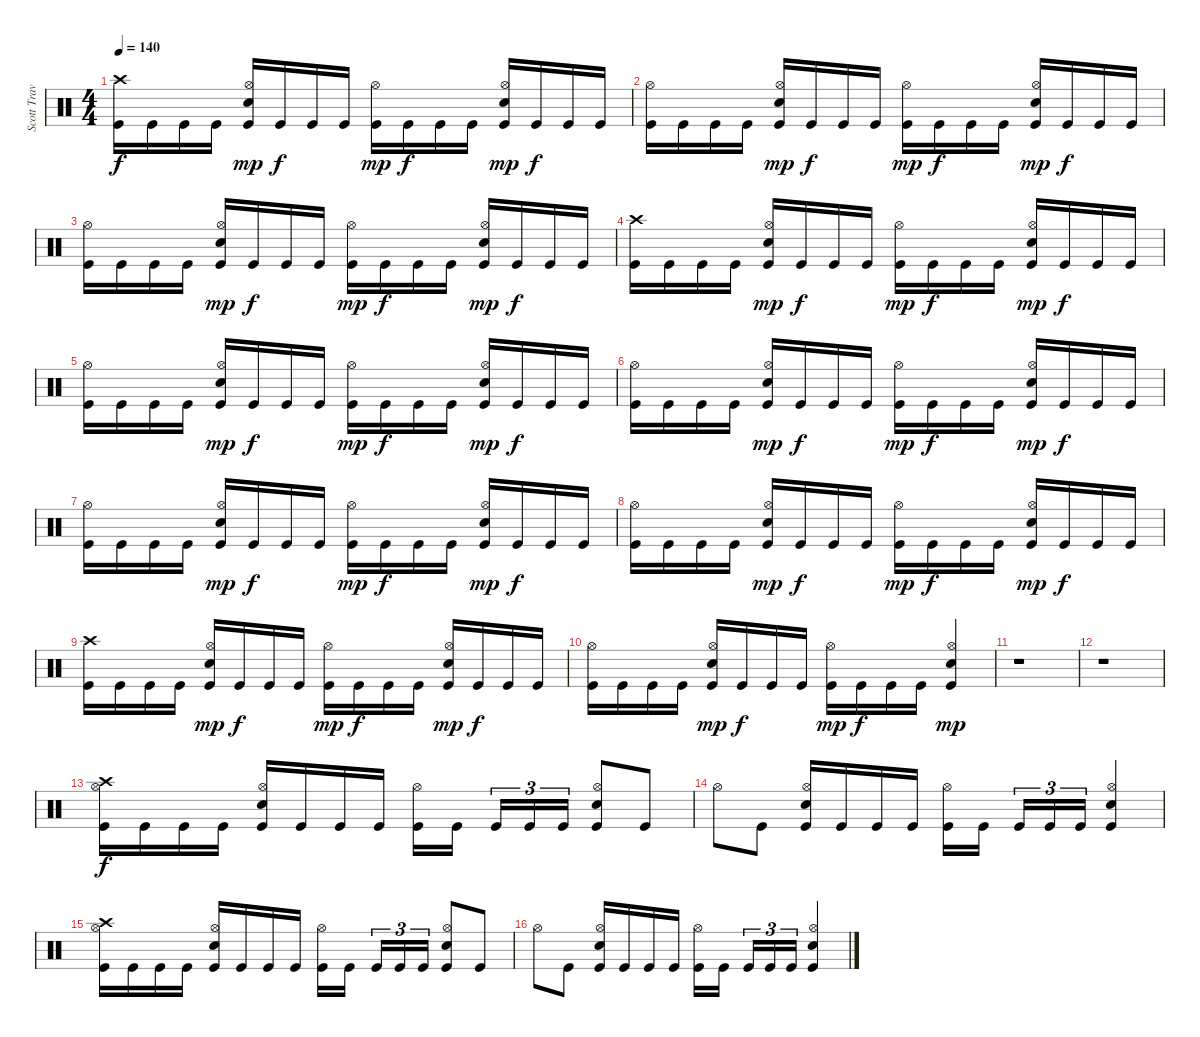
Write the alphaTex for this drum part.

\track ("Scott Travis" "Scott Trav") {instrument percussion}
\staff {score}
\articulation defaults
\ts (4 4)
\tempo 140
\clef neutral
\ks c
("Crash high (hit)" "Kick (hit)").16{dy f} "Kick (hit)".16 "Kick (hit)".16 "Kick (hit)".16 ("Hi-Hat (open)" "Snare (hit) 2" "Kick (hit)").16{dy mp} "Kick (hit)".16{dy f} "Kick (hit)".16 "Kick (hit)".16 ("Hi-Hat (open)" "Kick (hit)").16{dy mp} "Kick (hit)".16{dy f} "Kick (hit)".16 "Kick (hit)".16 ("Hi-Hat (open)" "Snare (hit) 2" "Kick (hit)").16{dy mp} "Kick (hit)".16{dy f} "Kick (hit)".16 "Kick (hit)".16 |
("Hi-Hat (open)" "Kick (hit)").16 "Kick (hit)".16 "Kick (hit)".16 "Kick (hit)".16 ("Hi-Hat (open)" "Snare (hit) 2" "Kick (hit)").16{dy mp} "Kick (hit)".16{dy f} "Kick (hit)".16 "Kick (hit)".16 ("Hi-Hat (open)" "Kick (hit)").16{dy mp} "Kick (hit)".16{dy f} "Kick (hit)".16 "Kick (hit)".16 ("Hi-Hat (open)" "Snare (hit) 2" "Kick (hit)").16{dy mp} "Kick (hit)".16{dy f} "Kick (hit)".16 "Kick (hit)".16 |
("Hi-Hat (open)" "Kick (hit)").16 "Kick (hit)".16 "Kick (hit)".16 "Kick (hit)".16 ("Hi-Hat (open)" "Snare (hit) 2" "Kick (hit)").16{dy mp} "Kick (hit)".16{dy f} "Kick (hit)".16 "Kick (hit)".16 ("Hi-Hat (open)" "Kick (hit)").16{dy mp} "Kick (hit)".16{dy f} "Kick (hit)".16 "Kick (hit)".16 ("Hi-Hat (open)" "Snare (hit) 2" "Kick (hit)").16{dy mp} "Kick (hit)".16{dy f} "Kick (hit)".16 "Kick (hit)".16 |
("Crash high (hit)" "Kick (hit)").16 "Kick (hit)".16 "Kick (hit)".16 "Kick (hit)".16 ("Hi-Hat (open)" "Snare (hit) 2" "Kick (hit)").16{dy mp} "Kick (hit)".16{dy f} "Kick (hit)".16 "Kick (hit)".16 ("Hi-Hat (open)" "Kick (hit)").16{dy mp} "Kick (hit)".16{dy f} "Kick (hit)".16 "Kick (hit)".16 ("Hi-Hat (open)" "Snare (hit) 2" "Kick (hit)").16{dy mp} "Kick (hit)".16{dy f} "Kick (hit)".16 "Kick (hit)".16 |
("Hi-Hat (open)" "Kick (hit)").16 "Kick (hit)".16 "Kick (hit)".16 "Kick (hit)".16 ("Hi-Hat (open)" "Snare (hit) 2" "Kick (hit)").16{dy mp} "Kick (hit)".16{dy f} "Kick (hit)".16 "Kick (hit)".16 ("Hi-Hat (open)" "Kick (hit)").16{dy mp} "Kick (hit)".16{dy f} "Kick (hit)".16 "Kick (hit)".16 ("Hi-Hat (open)" "Snare (hit) 2" "Kick (hit)").16{dy mp} "Kick (hit)".16{dy f} "Kick (hit)".16 "Kick (hit)".16 |
("Hi-Hat (open)" "Kick (hit)").16 "Kick (hit)".16 "Kick (hit)".16 "Kick (hit)".16 ("Hi-Hat (open)" "Snare (hit) 2" "Kick (hit)").16{dy mp} "Kick (hit)".16{dy f} "Kick (hit)".16 "Kick (hit)".16 ("Hi-Hat (open)" "Kick (hit)").16{dy mp} "Kick (hit)".16{dy f} "Kick (hit)".16 "Kick (hit)".16 ("Hi-Hat (open)" "Snare (hit) 2" "Kick (hit)").16{dy mp} "Kick (hit)".16{dy f} "Kick (hit)".16 "Kick (hit)".16 |
("Hi-Hat (open)" "Kick (hit)").16 "Kick (hit)".16 "Kick (hit)".16 "Kick (hit)".16 ("Hi-Hat (open)" "Snare (hit) 2" "Kick (hit)").16{dy mp} "Kick (hit)".16{dy f} "Kick (hit)".16 "Kick (hit)".16 ("Hi-Hat (open)" "Kick (hit)").16{dy mp} "Kick (hit)".16{dy f} "Kick (hit)".16 "Kick (hit)".16 ("Hi-Hat (open)" "Snare (hit) 2" "Kick (hit)").16{dy mp} "Kick (hit)".16{dy f} "Kick (hit)".16 "Kick (hit)".16 |
("Hi-Hat (open)" "Kick (hit)").16 "Kick (hit)".16 "Kick (hit)".16 "Kick (hit)".16 ("Hi-Hat (open)" "Snare (hit) 2" "Kick (hit)").16{dy mp} "Kick (hit)".16{dy f} "Kick (hit)".16 "Kick (hit)".16 ("Hi-Hat (open)" "Kick (hit)").16{dy mp} "Kick (hit)".16{dy f} "Kick (hit)".16 "Kick (hit)".16 ("Hi-Hat (open)" "Snare (hit) 2" "Kick (hit)").16{dy mp} "Kick (hit)".16{dy f} "Kick (hit)".16 "Kick (hit)".16 |
("Crash high (hit)" "Kick (hit)").16 "Kick (hit)".16 "Kick (hit)".16 "Kick (hit)".16 ("Hi-Hat (open)" "Snare (hit) 2" "Kick (hit)").16{dy mp} "Kick (hit)".16{dy f} "Kick (hit)".16 "Kick (hit)".16 ("Hi-Hat (open)" "Kick (hit)").16{dy mp} "Kick (hit)".16{dy f} "Kick (hit)".16 "Kick (hit)".16 ("Hi-Hat (open)" "Snare (hit) 2" "Kick (hit)").16{dy mp} "Kick (hit)".16{dy f} "Kick (hit)".16 "Kick (hit)".16 |
("Hi-Hat (open)" "Kick (hit)").16 "Kick (hit)".16 "Kick (hit)".16 "Kick (hit)".16 ("Hi-Hat (open)" "Snare (hit) 2" "Kick (hit)").16{dy mp} "Kick (hit)".16{dy f} "Kick (hit)".16 "Kick (hit)".16 ("Hi-Hat (open)" "Kick (hit)").16{dy mp} "Kick (hit)".16{dy f} "Kick (hit)".16 "Kick (hit)".16 ("Hi-Hat (open)" "Snare (hit) 2" "Kick (hit)").4{dy mp} |
r.1 |
r.1 |
("Hi-Hat (open)" "Crash high (hit)" "Kick (hit)").16{dy f} "Kick (hit)".16 "Kick (hit)".16 "Kick (hit)".16 ("Hi-Hat (open)" "Snare (hit) 2" "Kick (hit)").16 "Kick (hit)".16 "Kick (hit)".16 "Kick (hit)".16 ("Hi-Hat (open)" "Kick (hit)").16 "Kick (hit)".16{beam splitsecondary} "Kick (hit)".16{tu (3 2)} "Kick (hit)".16{tu (3 2)} "Kick (hit)".16{tu (3 2)} ("Hi-Hat (open)" "Snare (hit) 2" "Kick (hit)").8 "Kick (hit)".8 |
"Hi-Hat (open)".8 "Kick (hit)".8 ("Hi-Hat (open)" "Snare (hit) 2" "Kick (hit)").16 "Kick (hit)".16 "Kick (hit)".16 "Kick (hit)".16 ("Hi-Hat (open)" "Kick (hit)").16 "Kick (hit)".16{beam splitsecondary} "Kick (hit)".16{tu (3 2)} "Kick (hit)".16{tu (3 2)} "Kick (hit)".16{tu (3 2)} ("Hi-Hat (open)" "Snare (hit) 2" "Kick (hit)").4 |
("Hi-Hat (open)" "Crash high (hit)" "Kick (hit)").16 "Kick (hit)".16 "Kick (hit)".16 "Kick (hit)".16 ("Hi-Hat (open)" "Snare (hit) 2" "Kick (hit)").16 "Kick (hit)".16 "Kick (hit)".16 "Kick (hit)".16 ("Hi-Hat (open)" "Kick (hit)").16 "Kick (hit)".16{beam splitsecondary} "Kick (hit)".16{tu (3 2)} "Kick (hit)".16{tu (3 2)} "Kick (hit)".16{tu (3 2)} ("Hi-Hat (open)" "Snare (hit) 2" "Kick (hit)").8 "Kick (hit)".8 |
"Hi-Hat (open)".8 "Kick (hit)".8 ("Hi-Hat (open)" "Snare (hit) 2" "Kick (hit)").16 "Kick (hit)".16 "Kick (hit)".16 "Kick (hit)".16 ("Hi-Hat (open)" "Kick (hit)").16 "Kick (hit)".16{beam splitsecondary} "Kick (hit)".16{tu (3 2)} "Kick (hit)".16{tu (3 2)} "Kick (hit)".16{tu (3 2)} ("Hi-Hat (open)" "Snare (hit) 2" "Kick (hit)").4
